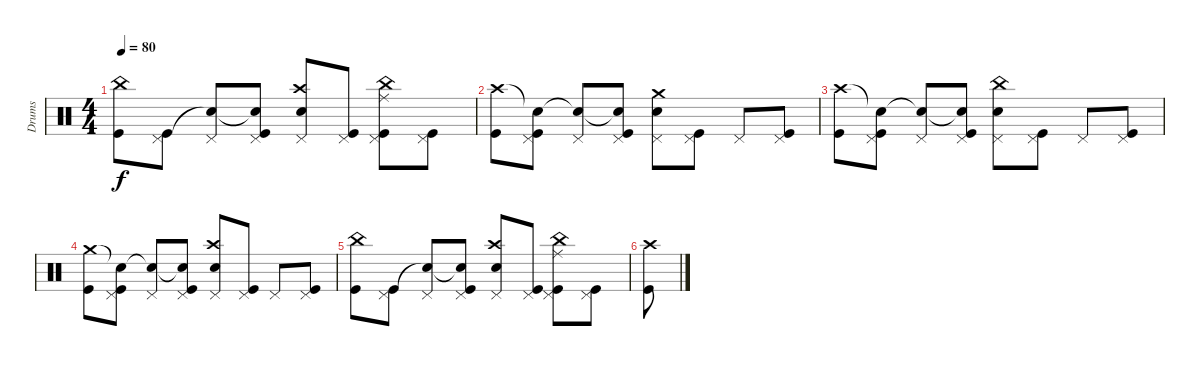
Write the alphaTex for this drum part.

\track ("Drums" "Drums") {instrument percussion}
\staff {score}
\articulation defaults
\ts (4 4)
\tempo 80
\clef neutral
\ks c
("China (hit)" "Kick (hit)").8{dy f} ("Pedal Hi-Hat (hit)" "Kick (hit)").8 ("Snare (hit)"{t} "Pedal Hi-Hat (hit)").8 ("Snare (hit)"{t} "Pedal Hi-Hat (hit)" "Kick (hit)").8 ("Crash high (hit)" "Pedal Hi-Hat (hit)" "Electric Snare (hit)").8 ("Pedal Hi-Hat (hit)" "Kick (hit)").8 ("China (hit)" "Pedal Hi-Hat (hit)" "Ride (middle)" "Kick (hit)").8 ("Pedal Hi-Hat (hit)" "Kick (hit)").8 |
("Crash high (hit)" "Kick (hit)").8 ("Snare (hit)"{t} "Pedal Hi-Hat (hit)" "Kick (hit)").8 ("Snare (hit)"{t} "Pedal Hi-Hat (hit)").8 ("Snare (hit)"{t} "Pedal Hi-Hat (hit)" "Kick (hit)").8 ("Crash medium (hit)" "Pedal Hi-Hat (hit)" "Electric Snare (hit)").8 ("Pedal Hi-Hat (hit)" "Kick (hit)").8 "Pedal Hi-Hat (hit)".8 ("Pedal Hi-Hat (hit)" "Kick (hit)").8 |
("Crash high (hit)" "Kick (hit)").8 ("Snare (hit)"{t} "Pedal Hi-Hat (hit)" "Kick (hit)").8 ("Snare (hit)"{t} "Pedal Hi-Hat (hit)").8 ("Snare (hit)"{t} "Pedal Hi-Hat (hit)" "Kick (hit)").8 ("China (hit)" "Pedal Hi-Hat (hit)" "Electric Snare (hit)").8 ("Pedal Hi-Hat (hit)" "Kick (hit)").8 "Pedal Hi-Hat (hit)".8 ("Pedal Hi-Hat (hit)" "Kick (hit)").8 |
("Crash medium (hit)" "Kick (hit)").8 ("Snare (hit)"{t} "Pedal Hi-Hat (hit)" "Kick (hit)").8 ("Snare (hit)"{t} "Pedal Hi-Hat (hit)").8 ("Snare (hit)"{t} "Pedal Hi-Hat (hit)" "Kick (hit)").8 ("Crash high (hit)" "Pedal Hi-Hat (hit)" "Electric Snare (hit)").8 ("Pedal Hi-Hat (hit)" "Kick (hit)").8 "Pedal Hi-Hat (hit)".8 ("Pedal Hi-Hat (hit)" "Kick (hit)").8 |
("China (hit)" "Kick (hit)").8 ("Pedal Hi-Hat (hit)" "Kick (hit)").8 ("Snare (hit)"{t} "Pedal Hi-Hat (hit)").8 ("Snare (hit)"{t} "Pedal Hi-Hat (hit)" "Kick (hit)").8 ("Crash high (hit)" "Pedal Hi-Hat (hit)" "Electric Snare (hit)").8 ("Pedal Hi-Hat (hit)" "Kick (hit)").8 ("China (hit)" "Pedal Hi-Hat (hit)" "Ride (middle)" "Kick (hit)").8 ("Pedal Hi-Hat (hit)" "Kick (hit)").8 |
("Crash high (hit)" "Kick (hit)").8
